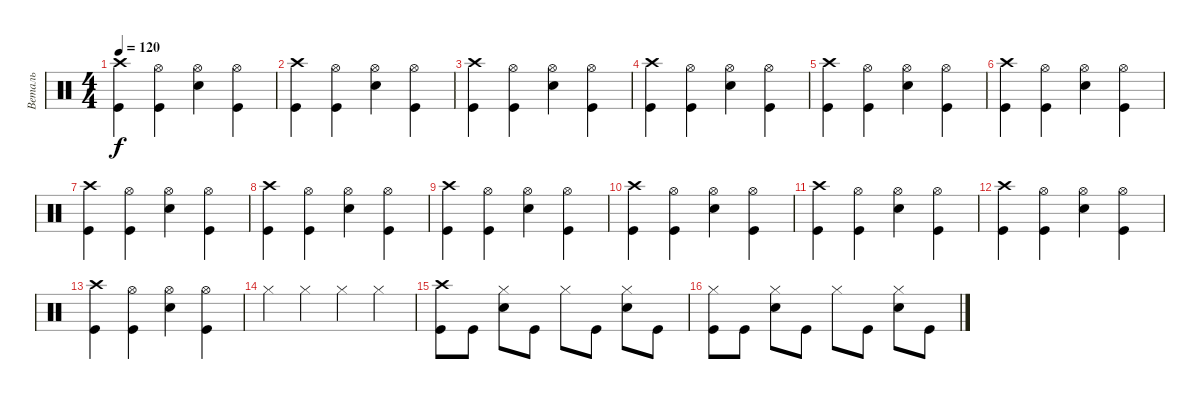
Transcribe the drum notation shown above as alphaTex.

\track ("Веталь" "Веталь") {instrument percussion}
\staff {score}
\articulation defaults
\ts (4 4)
\tempo 120
\clef neutral
\ks c
("Crash high (hit)" "Kick (hit)").4{dy f} ("Hi-Hat (open)" "Kick (hit)").4 ("Hi-Hat (open)" "Snare (hit) 2").4 ("Hi-Hat (open)" "Kick (hit)").4 |
("Crash high (hit)" "Kick (hit)").4 ("Hi-Hat (open)" "Kick (hit)").4 ("Hi-Hat (open)" "Snare (hit) 2").4 ("Hi-Hat (open)" "Kick (hit)").4 |
("Crash high (hit)" "Kick (hit)").4 ("Hi-Hat (open)" "Kick (hit)").4 ("Hi-Hat (open)" "Snare (hit) 2").4 ("Hi-Hat (open)" "Kick (hit)").4 |
("Crash high (hit)" "Kick (hit)").4 ("Hi-Hat (open)" "Kick (hit)").4 ("Hi-Hat (open)" "Snare (hit) 2").4 ("Hi-Hat (open)" "Kick (hit)").4 |
("Crash high (hit)" "Kick (hit)").4 ("Hi-Hat (open)" "Kick (hit)").4 ("Hi-Hat (open)" "Snare (hit) 2").4 ("Hi-Hat (open)" "Kick (hit)").4 |
("Crash high (hit)" "Kick (hit)").4 ("Hi-Hat (open)" "Kick (hit)").4 ("Hi-Hat (open)" "Snare (hit) 2").4 ("Hi-Hat (open)" "Kick (hit)").4 |
("Crash high (hit)" "Kick (hit)").4 ("Hi-Hat (open)" "Kick (hit)").4 ("Hi-Hat (open)" "Snare (hit) 2").4 ("Hi-Hat (open)" "Kick (hit)").4 |
("Crash high (hit)" "Kick (hit)").4 ("Hi-Hat (open)" "Kick (hit)").4 ("Hi-Hat (open)" "Snare (hit) 2").4 ("Hi-Hat (open)" "Kick (hit)").4 |
("Crash high (hit)" "Kick (hit)").4 ("Hi-Hat (open)" "Kick (hit)").4 ("Hi-Hat (open)" "Snare (hit) 2").4 ("Hi-Hat (open)" "Kick (hit)").4 |
("Crash high (hit)" "Kick (hit)").4 ("Hi-Hat (open)" "Kick (hit)").4 ("Hi-Hat (open)" "Snare (hit) 2").4 ("Hi-Hat (open)" "Kick (hit)").4 |
("Crash high (hit)" "Kick (hit)").4 ("Hi-Hat (open)" "Kick (hit)").4 ("Hi-Hat (open)" "Snare (hit) 2").4 ("Hi-Hat (open)" "Kick (hit)").4 |
("Crash high (hit)" "Kick (hit)").4 ("Hi-Hat (open)" "Kick (hit)").4 ("Hi-Hat (open)" "Snare (hit) 2").4 ("Hi-Hat (open)" "Kick (hit)").4 |
("Crash high (hit)" "Kick (hit)").4 ("Hi-Hat (open)" "Kick (hit)").4 ("Hi-Hat (open)" "Snare (hit) 2").4 ("Hi-Hat (open)" "Kick (hit)").4 |
"Hi-Hat (closed)".4 "Hi-Hat (closed)".4 "Hi-Hat (closed)".4 "Hi-Hat (closed)".4 |
("Crash high (hit)" "Kick (hit)").8 "Kick (hit)".8 ("Hi-Hat (closed)" "Snare (hit) 2").8 "Kick (hit)".8 "Hi-Hat (closed)".8 "Kick (hit)".8 ("Hi-Hat (closed)" "Snare (hit) 2").8 "Kick (hit)".8 |
("Hi-Hat (closed)" "Kick (hit)").8 "Kick (hit)".8 ("Hi-Hat (closed)" "Snare (hit) 2").8 "Kick (hit)".8 "Hi-Hat (closed)".8 "Kick (hit)".8 ("Hi-Hat (closed)" "Snare (hit) 2").8 "Kick (hit)".8
